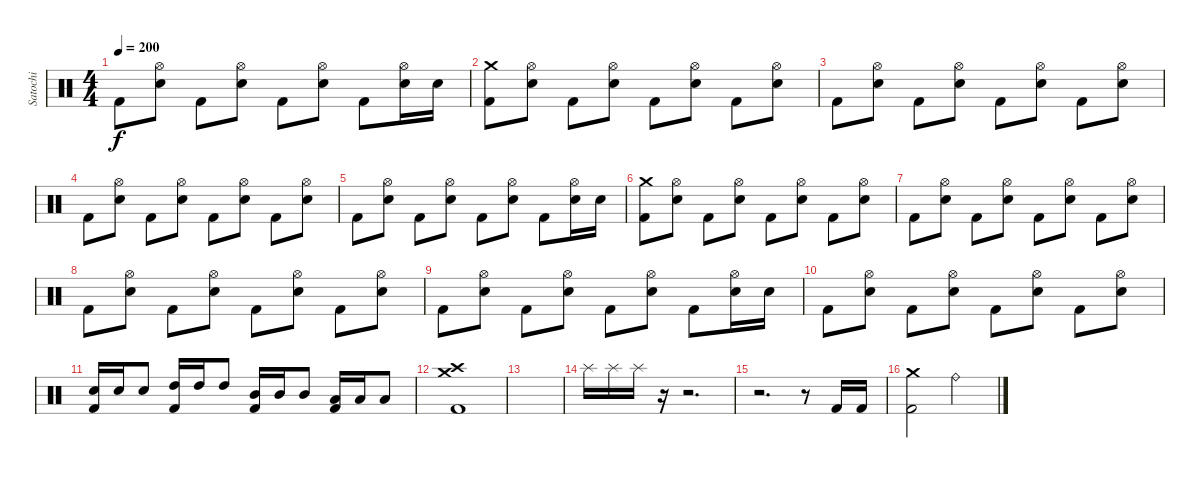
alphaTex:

\track ("Satochi" "Satochi") {instrument percussion}
\staff {score}
\articulation defaults
\ts (4 4)
\tempo 200
\clef neutral
\ks c "Kick (hit) 2".8{dy f}
("Hi-Hat (open)" "Electric Snare (hit)").8 "Kick (hit) 2".8 ("Hi-Hat (open)" "Electric Snare (hit)").8 "Kick (hit) 2".8 ("Hi-Hat (open)" "Electric Snare (hit)").8 "Kick (hit) 2".8 ("Hi-Hat (open)" "Electric Snare (hit)").16 "Electric Snare (hit)".16 |
("Crash medium (hit)" "Kick (hit) 2").8 ("Hi-Hat (open)" "Electric Snare (hit)").8 "Kick (hit) 2".8 ("Hi-Hat (open)" "Electric Snare (hit)").8 "Kick (hit) 2".8 ("Hi-Hat (open)" "Electric Snare (hit)").8 "Kick (hit) 2".8 ("Hi-Hat (open)" "Electric Snare (hit)").8 |
"Kick (hit) 2".8 ("Hi-Hat (open)" "Electric Snare (hit)").8 "Kick (hit) 2".8 ("Hi-Hat (open)" "Electric Snare (hit)").8 "Kick (hit) 2".8 ("Hi-Hat (open)" "Electric Snare (hit)").8 "Kick (hit) 2".8 ("Hi-Hat (open)" "Electric Snare (hit)").8 |
"Kick (hit) 2".8 ("Hi-Hat (open)" "Electric Snare (hit)").8 "Kick (hit) 2".8 ("Hi-Hat (open)" "Electric Snare (hit)").8 "Kick (hit) 2".8 ("Hi-Hat (open)" "Electric Snare (hit)").8 "Kick (hit) 2".8 ("Hi-Hat (open)" "Electric Snare (hit)").8 |
"Kick (hit) 2".8 ("Hi-Hat (open)" "Electric Snare (hit)").8 "Kick (hit) 2".8 ("Hi-Hat (open)" "Electric Snare (hit)").8 "Kick (hit) 2".8 ("Hi-Hat (open)" "Electric Snare (hit)").8 "Kick (hit) 2".8 ("Hi-Hat (open)" "Electric Snare (hit)").16 "Electric Snare (hit)".16 |
("Crash medium (hit)" "Kick (hit) 2").8 ("Hi-Hat (open)" "Electric Snare (hit)").8 "Kick (hit) 2".8 ("Hi-Hat (open)" "Electric Snare (hit)").8 "Kick (hit) 2".8 ("Hi-Hat (open)" "Electric Snare (hit)").8 "Kick (hit) 2".8 ("Hi-Hat (open)" "Electric Snare (hit)").8 |
"Kick (hit) 2".8 ("Hi-Hat (open)" "Electric Snare (hit)").8 "Kick (hit) 2".8 ("Hi-Hat (open)" "Electric Snare (hit)").8 "Kick (hit) 2".8 ("Hi-Hat (open)" "Electric Snare (hit)").8 "Kick (hit) 2".8 ("Hi-Hat (open)" "Electric Snare (hit)").8 |
"Kick (hit) 2".8 ("Hi-Hat (open)" "Electric Snare (hit)").8 "Kick (hit) 2".8 ("Hi-Hat (open)" "Electric Snare (hit)").8 "Kick (hit) 2".8 ("Hi-Hat (open)" "Electric Snare (hit)").8 "Kick (hit) 2".8 ("Hi-Hat (open)" "Electric Snare (hit)").8 |
"Kick (hit) 2".8 ("Hi-Hat (open)" "Electric Snare (hit)").8 "Kick (hit) 2".8 ("Hi-Hat (open)" "Electric Snare (hit)").8 "Kick (hit) 2".8 ("Hi-Hat (open)" "Electric Snare (hit)").8 "Kick (hit) 2".8 ("Hi-Hat (open)" "Electric Snare (hit)").16 "Electric Snare (hit)".16 |
"Kick (hit) 2".8 ("Hi-Hat (open)" "Electric Snare (hit)").8 "Kick (hit) 2".8 ("Hi-Hat (open)" "Electric Snare (hit)").8 "Kick (hit) 2".8 ("Hi-Hat (open)" "Electric Snare (hit)").8 "Kick (hit) 2".8 ("Hi-Hat (open)" "Electric Snare (hit)").8 |
("Electric Snare (hit)" "Kick (hit) 2").16 "Electric Snare (hit)".16 "Electric Snare (hit)".8 ("High Tom (hit)" "Kick (hit) 2").16 "High Tom (hit)".16 "High Tom (hit)".8 ("Mid Tom (hit)" "Kick (hit) 2").16 "Mid Tom (hit)".16 "Mid Tom (hit)".8 ("Low Tom (hit)" "Kick (hit) 2").16 "Low Tom (hit)".16 "Low Tom (hit)".8 |
("Crash medium (hit)" "Crash high (hit)" "Kick (hit) 2").1 |
|
"Splash (hit)".16 "Splash (hit)".16 "Splash (hit)".16 r.16 r.2{d} |
r.2{d} r.8 "Kick (hit) 2".16 "Kick (hit) 2".16 |
("Crash medium (hit)" "Kick (hit) 2").2 "Ride (bell)".2
